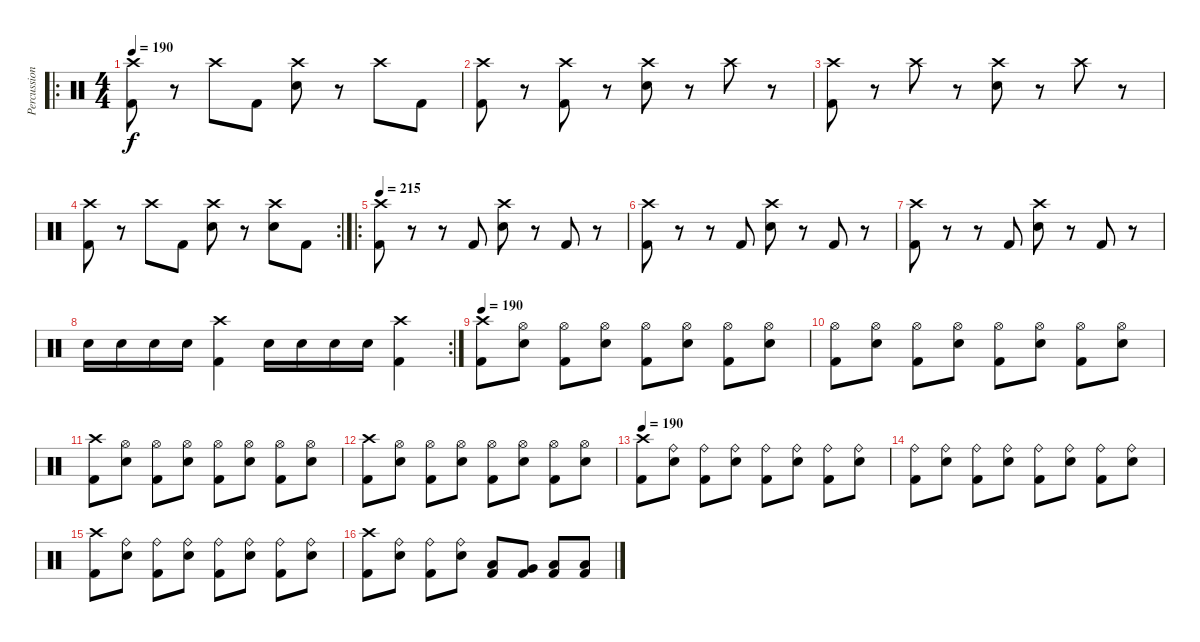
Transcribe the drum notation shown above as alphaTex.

\track ("Percussion" "Percussion") {instrument percussion}
\staff {score}
\articulation defaults
\ro
\ts (4 4)
\tempo 190
\clef neutral
\ks c
("Crash high (hit)" "Kick (hit) 2").8{dy f} r.8 "Crash high (hit)".8 "Kick (hit) 2".8 ("Crash high (hit)" "Snare (hit) 2").8 r.8 "Crash high (hit)".8 "Kick (hit) 2".8 |
("Crash high (hit)" "Kick (hit) 2").8 r.8 ("Crash high (hit)" "Kick (hit) 2").8 r.8 ("Crash high (hit)" "Snare (hit) 2").8 r.8 "Crash high (hit)".8 r.8 |
("Crash high (hit)" "Kick (hit) 2").8 r.8 "Crash high (hit)".8 r.8 ("Crash high (hit)" "Snare (hit) 2").8 r.8 "Crash high (hit)".8 r.8 |
\rc 2
("Crash high (hit)" "Kick (hit) 2").8 r.8 "Crash high (hit)".8 "Kick (hit) 2".8 ("Crash high (hit)" "Snare (hit) 2").8 r.8 ("Crash high (hit)" "Snare (hit) 2").8 "Kick (hit) 2".8 |
\ro
\tempo 215
("Crash high (hit)" "Kick (hit) 2").8 r.8 r.8 "Kick (hit) 2".8 ("Crash high (hit)" "Snare (hit) 2").8 r.8 "Kick (hit) 2".8 r.8 |
("Crash high (hit)" "Kick (hit) 2").8 r.8 r.8 "Kick (hit) 2".8 ("Crash high (hit)" "Snare (hit) 2").8 r.8 "Kick (hit) 2".8 r.8 |
("Crash high (hit)" "Kick (hit) 2").8 r.8 r.8 "Kick (hit) 2".8 ("Crash high (hit)" "Snare (hit) 2").8 r.8 "Kick (hit) 2".8 r.8 |
\rc 2 "Snare (hit) 2".16 "Snare (hit) 2".16 "Snare (hit) 2".16 "Snare (hit) 2".16
("Crash high (hit)" "Kick (hit) 2").4 "Snare (hit) 2".16 "Snare (hit) 2".16 "Snare (hit) 2".16 "Snare (hit) 2".16 ("Crash high (hit)" "Kick (hit) 2").4 |
\tempo 190
("Crash high (hit)" "Kick (hit) 2").8{volume 13} ("Hi-Hat (open)" "Snare (hit) 2").8 ("Hi-Hat (open)" "Kick (hit) 2").8 ("Hi-Hat (open)" "Snare (hit) 2").8 ("Hi-Hat (open)" "Kick (hit) 2").8 ("Hi-Hat (open)" "Snare (hit) 2").8 ("Hi-Hat (open)" "Kick (hit) 2").8 ("Hi-Hat (open)" "Snare (hit) 2").8 |
("Hi-Hat (open)" "Kick (hit) 2").8 ("Hi-Hat (open)" "Snare (hit) 2").8 ("Hi-Hat (open)" "Kick (hit) 2").8 ("Hi-Hat (open)" "Snare (hit) 2").8 ("Hi-Hat (open)" "Kick (hit) 2").8 ("Hi-Hat (open)" "Snare (hit) 2").8 ("Hi-Hat (open)" "Kick (hit) 2").8 ("Hi-Hat (open)" "Snare (hit) 2").8 |
("Crash high (hit)" "Kick (hit) 2").8 ("Hi-Hat (open)" "Snare (hit) 2").8 ("Hi-Hat (open)" "Kick (hit) 2").8 ("Hi-Hat (open)" "Snare (hit) 2").8 ("Hi-Hat (open)" "Kick (hit) 2").8 ("Hi-Hat (open)" "Snare (hit) 2").8 ("Hi-Hat (open)" "Kick (hit) 2").8 ("Hi-Hat (open)" "Snare (hit) 2").8 |
("Crash high (hit)" "Kick (hit) 2").8 ("Hi-Hat (open)" "Snare (hit) 2").8 ("Hi-Hat (open)" "Kick (hit) 2").8 ("Hi-Hat (open)" "Snare (hit) 2").8 ("Hi-Hat (open)" "Kick (hit) 2").8 ("Hi-Hat (open)" "Snare (hit) 2").8 ("Hi-Hat (open)" "Kick (hit) 2").8 ("Hi-Hat (open)" "Snare (hit) 2").8 |
\tempo 190
("Crash high (hit)" "Kick (hit) 2").8 ("Ride (bell)" "Snare (hit) 2").8 ("Ride (bell)" "Kick (hit) 2").8 ("Ride (bell)" "Snare (hit) 2").8 ("Ride (bell)" "Kick (hit) 2").8 ("Ride (bell)" "Snare (hit) 2").8 ("Ride (bell)" "Kick (hit) 2").8 ("Ride (bell)" "Snare (hit) 2").8 |
("Ride (bell)" "Kick (hit) 2").8 ("Ride (bell)" "Snare (hit) 2").8 ("Ride (bell)" "Kick (hit) 2").8 ("Ride (bell)" "Snare (hit) 2").8 ("Ride (bell)" "Kick (hit) 2").8 ("Ride (bell)" "Snare (hit) 2").8 ("Ride (bell)" "Kick (hit) 2").8 ("Ride (bell)" "Snare (hit) 2").8 |
("Crash high (hit)" "Kick (hit) 2").8 ("Ride (bell)" "Snare (hit) 2").8 ("Ride (bell)" "Kick (hit) 2").8 ("Ride (bell)" "Snare (hit) 2").8 ("Ride (bell)" "Kick (hit) 2").8 ("Ride (bell)" "Snare (hit) 2").8 ("Ride (bell)" "Kick (hit) 2").8 ("Ride (bell)" "Snare (hit) 2").8 |
("Crash high (hit)" "Kick (hit) 2").8 ("Ride (bell)" "Snare (hit) 2").8 ("Ride (bell)" "Kick (hit) 2").8 ("Ride (bell)" "Snare (hit) 2").8 ("Low Tom (hit)" "Kick (hit) 2").8 ("Very Low Tom (hit)" "Kick (hit) 2").8 ("Low Floor Tom (hit)" "Kick (hit) 2").8 ("Low Floor Tom (hit)" "Kick (hit) 2").8
